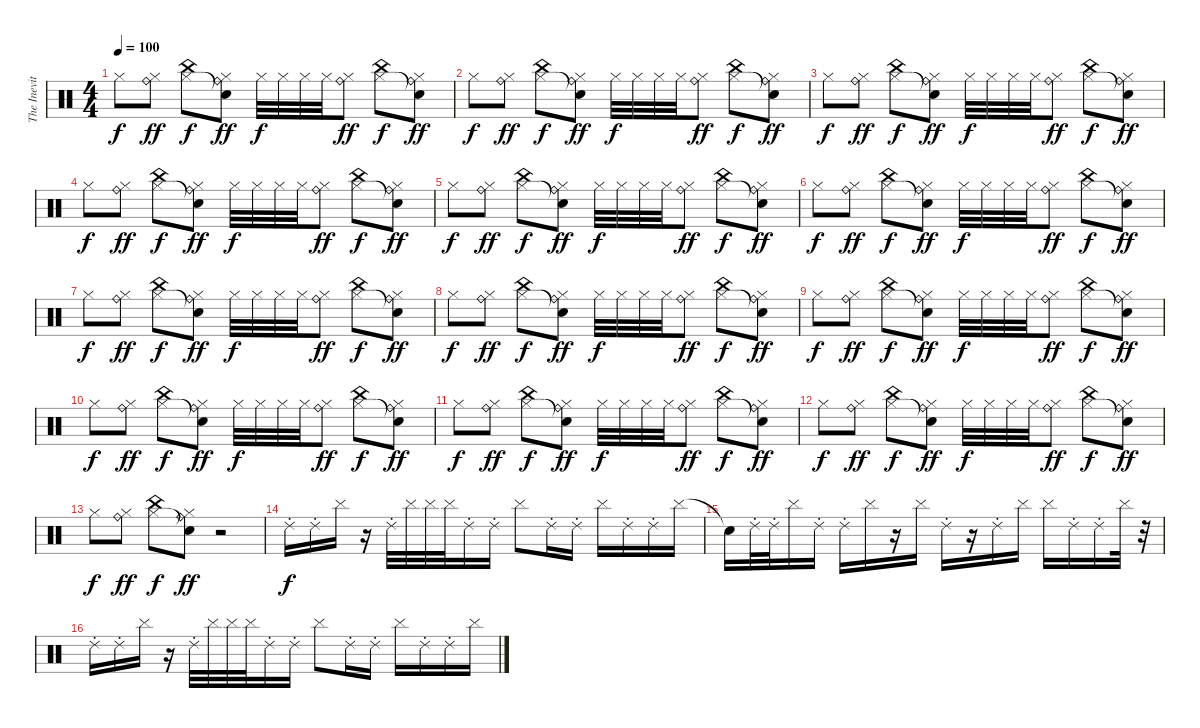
\track ("The Inevitable" "The Inevit") {instrument percussion}
\staff {score}
\articulation defaults
\ts (4 4)
\tempo 100
\clef neutral
\ks c "Hi-Hat (closed)".8{dy f}
("Ride (bell)" "Hi-Hat (closed)").8{dy ff} ("China (hit)" "Hi-Hat (closed)").8{dy f} ("Ride (bell)" "Snare (hit)"{t} "Hi-Hat (closed)").8{dy ff} "Hi-Hat (closed)".32{dy f} "Hi-Hat (closed)".32 "Hi-Hat (closed)".32 "Hi-Hat (closed)".32 ("Ride (bell)" "Hi-Hat (closed)").8{dy ff} ("China (hit)" "Hi-Hat (closed)").8{dy f} ("Ride (bell)" "Snare (hit)"{t} "Hi-Hat (closed)").8{dy ff} |
"Hi-Hat (closed)".8{dy f} ("Ride (bell)" "Hi-Hat (closed)").8{dy ff} ("China (hit)" "Hi-Hat (closed)").8{dy f} ("Ride (bell)" "Snare (hit)"{t} "Hi-Hat (closed)").8{dy ff} "Hi-Hat (closed)".32{dy f} "Hi-Hat (closed)".32 "Hi-Hat (closed)".32 "Hi-Hat (closed)".32 ("Ride (bell)" "Hi-Hat (closed)").8{dy ff} ("China (hit)" "Hi-Hat (closed)").8{dy f} ("Ride (bell)" "Snare (hit)"{t} "Hi-Hat (closed)").8{dy ff} |
"Hi-Hat (closed)".8{dy f} ("Ride (bell)" "Hi-Hat (closed)").8{dy ff} ("China (hit)" "Hi-Hat (closed)").8{dy f} ("Ride (bell)" "Snare (hit)"{t} "Hi-Hat (closed)").8{dy ff} "Hi-Hat (closed)".32{dy f} "Hi-Hat (closed)".32 "Hi-Hat (closed)".32 "Hi-Hat (closed)".32 ("Ride (bell)" "Hi-Hat (closed)").8{dy ff} ("China (hit)" "Hi-Hat (closed)").8{dy f} ("Ride (bell)" "Snare (hit)"{t} "Hi-Hat (closed)").8{dy ff} |
"Hi-Hat (closed)".8{dy f} ("Ride (bell)" "Hi-Hat (closed)").8{dy ff} ("China (hit)" "Hi-Hat (closed)").8{dy f} ("Ride (bell)" "Snare (hit)"{t} "Hi-Hat (closed)").8{dy ff} "Hi-Hat (closed)".32{dy f} "Hi-Hat (closed)".32 "Hi-Hat (closed)".32 "Hi-Hat (closed)".32 ("Ride (bell)" "Hi-Hat (closed)").8{dy ff} ("China (hit)" "Hi-Hat (closed)").8{dy f} ("Ride (bell)" "Snare (hit)"{t} "Hi-Hat (closed)").8{dy ff} |
"Hi-Hat (closed)".8{dy f} ("Ride (bell)" "Hi-Hat (closed)").8{dy ff} ("China (hit)" "Hi-Hat (closed)").8{dy f} ("Ride (bell)" "Snare (hit)"{t} "Hi-Hat (closed)").8{dy ff} "Hi-Hat (closed)".32{dy f} "Hi-Hat (closed)".32 "Hi-Hat (closed)".32 "Hi-Hat (closed)".32 ("Ride (bell)" "Hi-Hat (closed)").8{dy ff} ("China (hit)" "Hi-Hat (closed)").8{dy f} ("Ride (bell)" "Snare (hit)"{t} "Hi-Hat (closed)").8{dy ff} |
"Hi-Hat (closed)".8{dy f} ("Ride (bell)" "Hi-Hat (closed)").8{dy ff} ("China (hit)" "Hi-Hat (closed)").8{dy f} ("Ride (bell)" "Snare (hit)"{t} "Hi-Hat (closed)").8{dy ff} "Hi-Hat (closed)".32{dy f} "Hi-Hat (closed)".32 "Hi-Hat (closed)".32 "Hi-Hat (closed)".32 ("Ride (bell)" "Hi-Hat (closed)").8{dy ff} ("China (hit)" "Hi-Hat (closed)").8{dy f} ("Ride (bell)" "Snare (hit)"{t} "Hi-Hat (closed)").8{dy ff} |
"Hi-Hat (closed)".8{dy f} ("Ride (bell)" "Hi-Hat (closed)").8{dy ff} ("China (hit)" "Hi-Hat (closed)").8{dy f} ("Ride (bell)" "Snare (hit)"{t} "Hi-Hat (closed)").8{dy ff} "Hi-Hat (closed)".32{dy f} "Hi-Hat (closed)".32 "Hi-Hat (closed)".32 "Hi-Hat (closed)".32 ("Ride (bell)" "Hi-Hat (closed)").8{dy ff} ("China (hit)" "Hi-Hat (closed)").8{dy f} ("Ride (bell)" "Snare (hit)"{t} "Hi-Hat (closed)").8{dy ff} |
"Hi-Hat (closed)".8{dy f} ("Ride (bell)" "Hi-Hat (closed)").8{dy ff} ("China (hit)" "Hi-Hat (closed)").8{dy f} ("Ride (bell)" "Snare (hit)"{t} "Hi-Hat (closed)").8{dy ff} "Hi-Hat (closed)".32{dy f} "Hi-Hat (closed)".32 "Hi-Hat (closed)".32 "Hi-Hat (closed)".32 ("Ride (bell)" "Hi-Hat (closed)").8{dy ff} ("China (hit)" "Hi-Hat (closed)").8{dy f} ("Ride (bell)" "Snare (hit)"{t} "Hi-Hat (closed)").8{dy ff} |
"Hi-Hat (closed)".8{dy f} ("Ride (bell)" "Hi-Hat (closed)").8{dy ff} ("China (hit)" "Hi-Hat (closed)").8{dy f} ("Ride (bell)" "Snare (hit)"{t} "Hi-Hat (closed)").8{dy ff} "Hi-Hat (closed)".32{dy f} "Hi-Hat (closed)".32 "Hi-Hat (closed)".32 "Hi-Hat (closed)".32 ("Ride (bell)" "Hi-Hat (closed)").8{dy ff} ("China (hit)" "Hi-Hat (closed)").8{dy f} ("Ride (bell)" "Snare (hit)"{t} "Hi-Hat (closed)").8{dy ff} |
"Hi-Hat (closed)".8{dy f} ("Ride (bell)" "Hi-Hat (closed)").8{dy ff} ("China (hit)" "Hi-Hat (closed)").8{dy f} ("Ride (bell)" "Snare (hit)"{t} "Hi-Hat (closed)").8{dy ff} "Hi-Hat (closed)".32{dy f} "Hi-Hat (closed)".32 "Hi-Hat (closed)".32 "Hi-Hat (closed)".32 ("Ride (bell)" "Hi-Hat (closed)").8{dy ff} ("China (hit)" "Hi-Hat (closed)").8{dy f} ("Ride (bell)" "Snare (hit)"{t} "Hi-Hat (closed)").8{dy ff} |
"Hi-Hat (closed)".8{dy f} ("Ride (bell)" "Hi-Hat (closed)").8{dy ff} ("China (hit)" "Hi-Hat (closed)").8{dy f} ("Ride (bell)" "Snare (hit)"{t} "Hi-Hat (closed)").8{dy ff} "Hi-Hat (closed)".32{dy f} "Hi-Hat (closed)".32 "Hi-Hat (closed)".32 "Hi-Hat (closed)".32 ("Ride (bell)" "Hi-Hat (closed)").8{dy ff} ("China (hit)" "Hi-Hat (closed)").8{dy f} ("Ride (bell)" "Snare (hit)"{t} "Hi-Hat (closed)").8{dy ff} |
"Hi-Hat (closed)".8{dy f} ("Ride (bell)" "Hi-Hat (closed)").8{dy ff} ("China (hit)" "Hi-Hat (closed)").8{dy f} ("Ride (bell)" "Snare (hit)"{t} "Hi-Hat (closed)").8{dy ff} "Hi-Hat (closed)".32{dy f} "Hi-Hat (closed)".32 "Hi-Hat (closed)".32 "Hi-Hat (closed)".32 ("Ride (bell)" "Hi-Hat (closed)").8{dy ff} ("China (hit)" "Hi-Hat (closed)").8{dy f} ("Ride (bell)" "Snare (hit)"{t} "Hi-Hat (closed)").8{dy ff} |
"Hi-Hat (closed)".8{dy f} ("Ride (bell)" "Hi-Hat (closed)").8{dy ff} ("China (hit)" "Hi-Hat (closed)").8{dy f} ("Ride (bell)" "Snare (hit)"{t} "Hi-Hat (closed)").8{dy ff} r.2 |
"Ride (choke) 2".16{dy f} "Ride (choke) 2".16 "Cymbal (hit)".16 r.16 "Ride (choke) 2".32 "Cymbal (hit)".32 "Cymbal (hit)".32 "Cymbal (hit)".32 "Ride (choke) 2".16 "Ride (choke) 2".16 "Cymbal (hit)".8 "Ride (choke) 2".16 "Ride (choke) 2".16 "Cymbal (hit)".16 "Ride (choke) 2".16 "Ride (choke) 2".16 "Cymbal (hit)".16 |
"Snare (hit)"{t}.16 "Ride (choke) 2".32 "Ride (choke) 2".32 "Cymbal (hit)".16 "Ride (choke) 2".16 "Ride (choke) 2".16 "Cymbal (hit)".16 r.16 "Cymbal (hit)".16 "Ride (choke) 2".16 r.16 "Ride (choke) 2".16 "Cymbal (hit)".16 "Cymbal (hit)".16 "Ride (choke) 2".16 "Ride (choke) 2".16 "Cymbal (hit)".32 r.32 |
"Ride (choke) 2".16 "Ride (choke) 2".16 "Cymbal (hit)".16 r.16 "Ride (choke) 2".32 "Cymbal (hit)".32 "Cymbal (hit)".32 "Cymbal (hit)".32 "Ride (choke) 2".16 "Ride (choke) 2".16 "Cymbal (hit)".8 "Ride (choke) 2".16 "Ride (choke) 2".16 "Cymbal (hit)".16 "Ride (choke) 2".16 "Ride (choke) 2".16 "Cymbal (hit)".16
